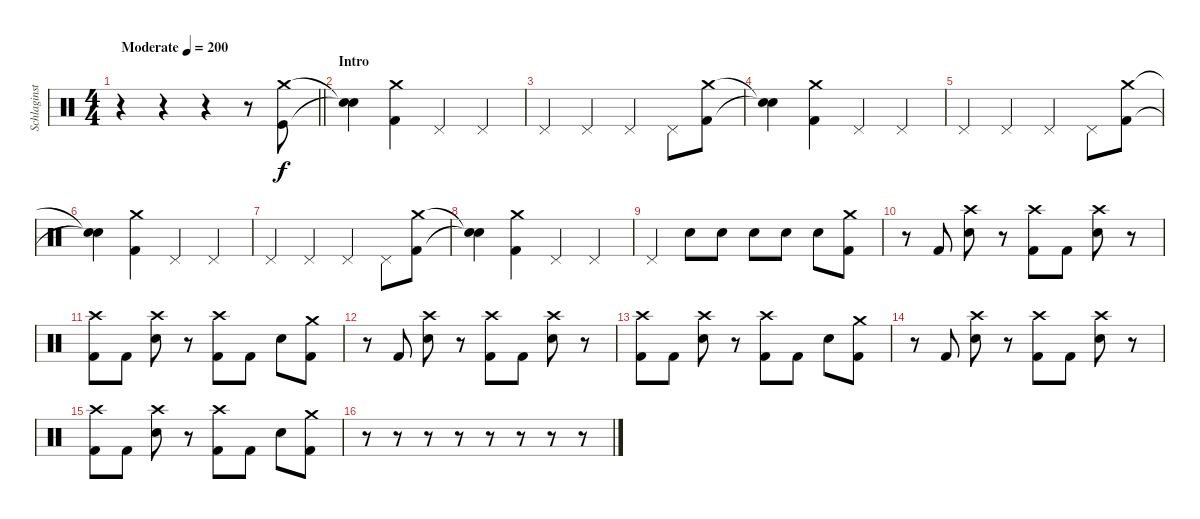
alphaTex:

\track ("Schlaginstrumente - Auswahl" "Schlaginst") {instrument percussion}
\staff {score}
\articulation defaults
\ts (4 4)
\tempo (200 "Moderate")
\clef neutral
\barLineRight lightlight
\ks c
r.4{dy f} r.4 r.4 r.8 ("Crash medium (hit)" "Kick (hit)").8 |
\section ("" "Intro")
("Snare (hit)"{t} "Snare (hit)"{t}).4 ("Crash medium (hit)" "Kick (hit) 2").4 "Pedal Hi-Hat (hit)".4 "Pedal Hi-Hat (hit)".4 |
"Pedal Hi-Hat (hit)".4 "Pedal Hi-Hat (hit)".4 "Pedal Hi-Hat (hit)".4 "Pedal Hi-Hat (hit)".8 ("Crash medium (hit)" "Kick (hit) 2").8 |
("Snare (hit)"{t} "Snare (hit)"{t}).4 ("Crash medium (hit)" "Kick (hit) 2").4 "Pedal Hi-Hat (hit)".4 "Pedal Hi-Hat (hit)".4 |
"Pedal Hi-Hat (hit)".4 "Pedal Hi-Hat (hit)".4 "Pedal Hi-Hat (hit)".4 "Pedal Hi-Hat (hit)".8 ("Crash medium (hit)" "Kick (hit) 2").8 |
("Snare (hit)"{t} "Snare (hit)"{t}).4 ("Crash medium (hit)" "Kick (hit) 2").4 "Pedal Hi-Hat (hit)".4 "Pedal Hi-Hat (hit)".4 |
"Pedal Hi-Hat (hit)".4 "Pedal Hi-Hat (hit)".4 "Pedal Hi-Hat (hit)".4 "Pedal Hi-Hat (hit)".8 ("Crash medium (hit)" "Kick (hit) 2").8 |
("Snare (hit)"{t} "Snare (hit)"{t}).4 ("Crash medium (hit)" "Kick (hit) 2").4 "Pedal Hi-Hat (hit)".4 "Pedal Hi-Hat (hit)".4 |
"Pedal Hi-Hat (hit)".4 "Electric Snare (hit)".8 "Electric Snare (hit)".8 "Electric Snare (hit)".8 "Electric Snare (hit)".8 "Electric Snare (hit)".8 ("Crash medium (hit)" "Kick (hit) 2").8 |
r.8 "Kick (hit) 2".8 ("Crash high (hit)" "Electric Snare (hit)").8 r.8 ("Crash high (hit)" "Kick (hit) 2").8 "Kick (hit) 2".8 ("Crash high (hit)" "Electric Snare (hit)").8 r.8 |
("Crash high (hit)" "Kick (hit) 2").8 "Kick (hit) 2".8 ("Crash high (hit)" "Electric Snare (hit)").8 r.8 ("Crash high (hit)" "Kick (hit) 2").8 "Kick (hit) 2".8 "Electric Snare (hit)".8 ("Crash medium (hit)" "Kick (hit) 2").8 |
r.8 "Kick (hit) 2".8 ("Crash high (hit)" "Electric Snare (hit)").8 r.8 ("Crash high (hit)" "Kick (hit) 2").8 "Kick (hit) 2".8 ("Crash high (hit)" "Electric Snare (hit)").8 r.8 |
("Crash high (hit)" "Kick (hit) 2").8 "Kick (hit) 2".8 ("Crash high (hit)" "Electric Snare (hit)").8 r.8 ("Crash high (hit)" "Kick (hit) 2").8 "Kick (hit) 2".8 "Electric Snare (hit)".8 ("Crash medium (hit)" "Kick (hit) 2").8 |
r.8 "Kick (hit) 2".8 ("Crash high (hit)" "Electric Snare (hit)").8 r.8 ("Crash high (hit)" "Kick (hit) 2").8 "Kick (hit) 2".8 ("Crash high (hit)" "Electric Snare (hit)").8 r.8 |
("Crash high (hit)" "Kick (hit) 2").8 "Kick (hit) 2".8 ("Crash high (hit)" "Electric Snare (hit)").8 r.8 ("Crash high (hit)" "Kick (hit) 2").8 "Kick (hit) 2".8 "Electric Snare (hit)".8 ("Crash medium (hit)" "Kick (hit) 2").8 |
r.8 r.8 r.8 r.8 r.8 r.8 r.8 r.8
